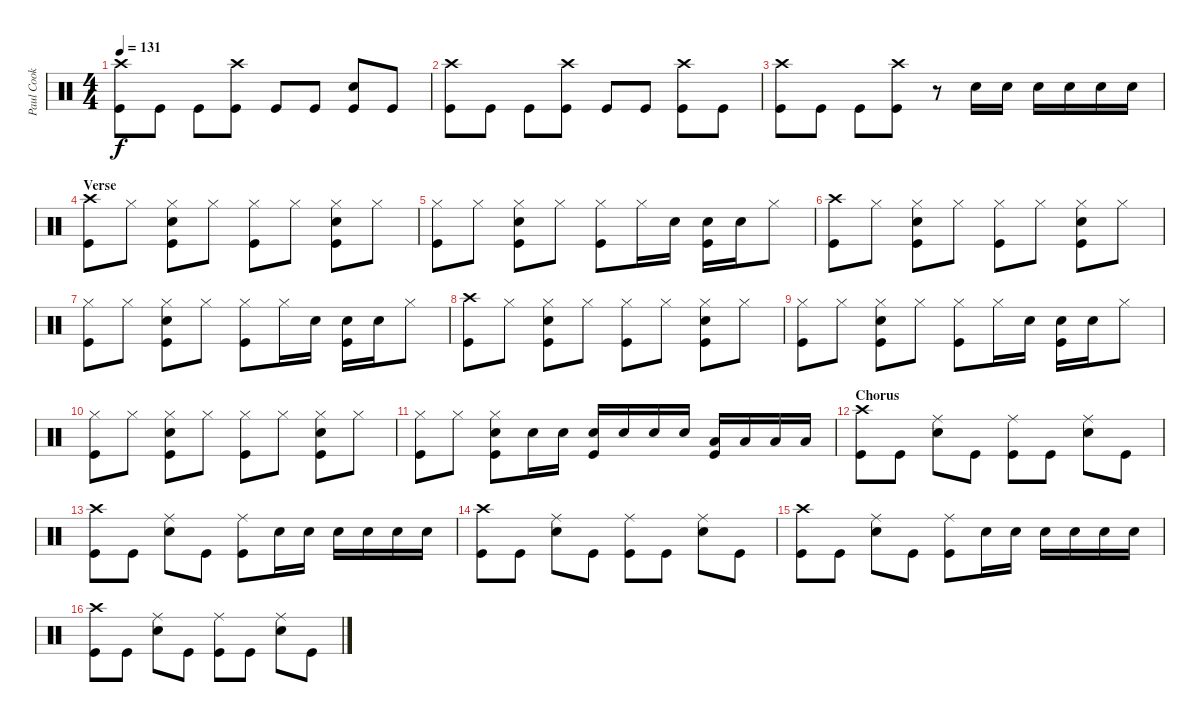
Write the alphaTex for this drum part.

\track ("Paul Cook" "Paul Cook") {instrument percussion}
\staff {score}
\articulation defaults
\ts (4 4)
\tempo 131
\clef neutral
\ks c
("Crash high (hit)" "Kick (hit)").8{dy f} "Kick (hit)".8 "Kick (hit)".8 ("Crash high (hit)" "Kick (hit)").8 "Kick (hit)".8 "Kick (hit)".8 ("Snare (hit) 2" "Kick (hit)").8 "Kick (hit)".8 |
("Crash high (hit)" "Kick (hit)").8 "Kick (hit)".8 "Kick (hit)".8 ("Crash high (hit)" "Kick (hit)").8 "Kick (hit)".8 "Kick (hit)".8 ("Crash high (hit)" "Kick (hit)").8 "Kick (hit)".8 |
("Crash high (hit)" "Kick (hit)").8 "Kick (hit)".8 "Kick (hit)".8 ("Crash high (hit)" "Kick (hit)").8 r.8 "Snare (hit) 2".16 "Snare (hit) 2".16 "Snare (hit) 2".16 "Snare (hit) 2".16 "Snare (hit) 2".16 "Snare (hit) 2".16 |
\section ("" "Verse")
("Crash high (hit)" "Kick (hit)").8 "Hi-Hat (closed)".8 ("Hi-Hat (closed)" "Snare (hit) 2" "Kick (hit)").8 "Hi-Hat (closed)".8 ("Hi-Hat (closed)" "Kick (hit)").8 "Hi-Hat (closed)".8 ("Hi-Hat (closed)" "Snare (hit) 2" "Kick (hit)").8 "Hi-Hat (closed)".8 |
("Hi-Hat (closed)" "Kick (hit)").8 "Hi-Hat (closed)".8 ("Hi-Hat (closed)" "Snare (hit) 2" "Kick (hit)").8 "Hi-Hat (closed)".8 ("Hi-Hat (closed)" "Kick (hit)").8 "Hi-Hat (closed)".16 "Snare (hit) 2".16 ("Snare (hit) 2" "Kick (hit)").16 "Snare (hit) 2".16 "Hi-Hat (closed)".8 |
("Crash high (hit)" "Kick (hit)").8 "Hi-Hat (closed)".8 ("Hi-Hat (closed)" "Snare (hit) 2" "Kick (hit)").8 "Hi-Hat (closed)".8 ("Hi-Hat (closed)" "Kick (hit)").8 "Hi-Hat (closed)".8 ("Hi-Hat (closed)" "Snare (hit) 2" "Kick (hit)").8 "Hi-Hat (closed)".8 |
("Hi-Hat (closed)" "Kick (hit)").8 "Hi-Hat (closed)".8 ("Hi-Hat (closed)" "Snare (hit) 2" "Kick (hit)").8 "Hi-Hat (closed)".8 ("Hi-Hat (closed)" "Kick (hit)").8 "Hi-Hat (closed)".16 "Snare (hit) 2".16 ("Snare (hit) 2" "Kick (hit)").16 "Snare (hit) 2".16 "Hi-Hat (closed)".8 |
("Crash high (hit)" "Kick (hit)").8 "Hi-Hat (closed)".8 ("Hi-Hat (closed)" "Snare (hit) 2" "Kick (hit)").8 "Hi-Hat (closed)".8 ("Hi-Hat (closed)" "Kick (hit)").8 "Hi-Hat (closed)".8 ("Hi-Hat (closed)" "Snare (hit) 2" "Kick (hit)").8 "Hi-Hat (closed)".8 |
("Hi-Hat (closed)" "Kick (hit)").8 "Hi-Hat (closed)".8 ("Hi-Hat (closed)" "Snare (hit) 2" "Kick (hit)").8 "Hi-Hat (closed)".8 ("Hi-Hat (closed)" "Kick (hit)").8 "Hi-Hat (closed)".16 "Snare (hit) 2".16 ("Snare (hit) 2" "Kick (hit)").16 "Snare (hit) 2".16 "Hi-Hat (closed)".8 |
("Hi-Hat (closed)" "Kick (hit)").8 "Hi-Hat (closed)".8 ("Hi-Hat (closed)" "Snare (hit) 2" "Kick (hit)").8 "Hi-Hat (closed)".8 ("Hi-Hat (closed)" "Kick (hit)").8 "Hi-Hat (closed)".8 ("Hi-Hat (closed)" "Snare (hit) 2" "Kick (hit)").8 "Hi-Hat (closed)".8 |
("Hi-Hat (closed)" "Kick (hit)").8 "Hi-Hat (closed)".8 ("Hi-Hat (closed)" "Snare (hit) 2" "Kick (hit)").8 "Snare (hit) 2".16 "Snare (hit) 2".16 ("Snare (hit) 2" "Kick (hit)").16 "Snare (hit) 2".16 "Snare (hit) 2".16 "Snare (hit) 2".16 ("Low Tom (hit)" "Kick (hit)").16 "Low Tom (hit)".16 "Low Tom (hit)".16 "Low Tom (hit)".16 |
\section ("" "Chorus")
("Crash high (hit)" "Kick (hit)").8 "Kick (hit)".8 ("Ride (middle)" "Snare (hit) 2").8 "Kick (hit)".8 ("Ride (middle)" "Kick (hit)").8 "Kick (hit)".8 ("Ride (middle)" "Snare (hit) 2").8 "Kick (hit)".8 |
("Crash high (hit)" "Kick (hit)").8 "Kick (hit)".8 ("Ride (middle)" "Snare (hit) 2").8 "Kick (hit)".8 ("Ride (middle)" "Kick (hit)").8 "Snare (hit) 2".16 "Snare (hit) 2".16 "Snare (hit) 2".16 "Snare (hit) 2".16 "Snare (hit) 2".16 "Snare (hit) 2".16 |
("Crash high (hit)" "Kick (hit)").8 "Kick (hit)".8 ("Ride (middle)" "Snare (hit) 2").8 "Kick (hit)".8 ("Ride (middle)" "Kick (hit)").8 "Kick (hit)".8 ("Ride (middle)" "Snare (hit) 2").8 "Kick (hit)".8 |
("Crash high (hit)" "Kick (hit)").8 "Kick (hit)".8 ("Ride (middle)" "Snare (hit) 2").8 "Kick (hit)".8 ("Ride (middle)" "Kick (hit)").8 "Snare (hit) 2".16 "Snare (hit) 2".16 "Snare (hit) 2".16 "Snare (hit) 2".16 "Snare (hit) 2".16 "Snare (hit) 2".16 |
("Crash high (hit)" "Kick (hit)").8 "Kick (hit)".8 ("Ride (middle)" "Snare (hit) 2").8 "Kick (hit)".8 ("Ride (middle)" "Kick (hit)").8 "Kick (hit)".8 ("Ride (middle)" "Snare (hit) 2").8 "Kick (hit)".8
